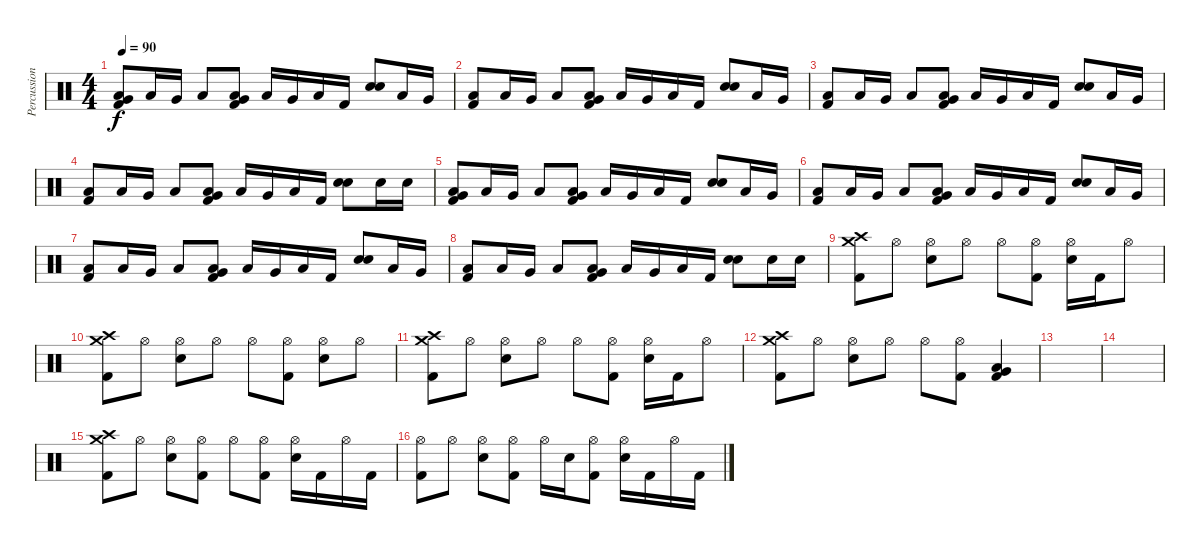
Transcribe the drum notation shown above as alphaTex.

\track ("Percussion" "Percussion") {instrument percussion}
\staff {score}
\articulation defaults
\ts (4 4)
\tempo 90
\clef neutral
\ks c
("Very Low Tom (hit)" "Low Floor Tom (hit)" "Kick (hit) 2").8{dy f} "Low Floor Tom (hit)".16 "Very Low Tom (hit)".16 "Low Floor Tom (hit)".8 ("Very Low Tom (hit)" "Low Floor Tom (hit)" "Kick (hit) 2").8 "Low Floor Tom (hit)".16 "Very Low Tom (hit)".16 "Low Floor Tom (hit)".16 "Kick (hit) 2".16 ("Snare (hit) 2" "Snare (hit) 2").8 "Low Floor Tom (hit)".16 "Very Low Tom (hit)".16 |
("Low Floor Tom (hit)" "Kick (hit) 2").8 "Low Floor Tom (hit)".16 "Very Low Tom (hit)".16 "Low Floor Tom (hit)".8 ("Very Low Tom (hit)" "Low Floor Tom (hit)" "Kick (hit) 2").8 "Low Floor Tom (hit)".16 "Very Low Tom (hit)".16 "Low Floor Tom (hit)".16 "Kick (hit) 2".16 ("Snare (hit) 2" "Snare (hit) 2").8 "Low Floor Tom (hit)".16 "Very Low Tom (hit)".16 |
("Low Floor Tom (hit)" "Kick (hit) 2").8 "Low Floor Tom (hit)".16 "Very Low Tom (hit)".16 "Low Floor Tom (hit)".8 ("Very Low Tom (hit)" "Low Floor Tom (hit)" "Kick (hit) 2").8 "Low Floor Tom (hit)".16 "Very Low Tom (hit)".16 "Low Floor Tom (hit)".16 "Kick (hit) 2".16 ("Snare (hit) 2" "Snare (hit) 2").8 "Low Floor Tom (hit)".16 "Very Low Tom (hit)".16 |
("Low Floor Tom (hit)" "Kick (hit) 2").8 "Low Floor Tom (hit)".16 "Very Low Tom (hit)".16 "Low Floor Tom (hit)".8 ("Very Low Tom (hit)" "Low Floor Tom (hit)" "Kick (hit) 2").8 "Low Floor Tom (hit)".16 "Very Low Tom (hit)".16 "Low Floor Tom (hit)".16 "Kick (hit) 2".16 ("Snare (hit) 2" "Snare (hit) 2").8 "Snare (hit) 2".16 "Snare (hit) 2".16 |
("Very Low Tom (hit)" "Low Floor Tom (hit)" "Kick (hit) 2").8 "Low Floor Tom (hit)".16 "Very Low Tom (hit)".16 "Low Floor Tom (hit)".8 ("Very Low Tom (hit)" "Low Floor Tom (hit)" "Kick (hit) 2").8 "Low Floor Tom (hit)".16 "Very Low Tom (hit)".16 "Low Floor Tom (hit)".16 "Kick (hit) 2".16 ("Snare (hit) 2" "Snare (hit) 2").8 "Low Floor Tom (hit)".16 "Very Low Tom (hit)".16 |
("Low Floor Tom (hit)" "Kick (hit) 2").8 "Low Floor Tom (hit)".16 "Very Low Tom (hit)".16 "Low Floor Tom (hit)".8 ("Very Low Tom (hit)" "Low Floor Tom (hit)" "Kick (hit) 2").8 "Low Floor Tom (hit)".16 "Very Low Tom (hit)".16 "Low Floor Tom (hit)".16 "Kick (hit) 2".16 ("Snare (hit) 2" "Snare (hit) 2").8 "Low Floor Tom (hit)".16 "Very Low Tom (hit)".16 |
("Low Floor Tom (hit)" "Kick (hit) 2").8 "Low Floor Tom (hit)".16 "Very Low Tom (hit)".16 "Low Floor Tom (hit)".8 ("Very Low Tom (hit)" "Low Floor Tom (hit)" "Kick (hit) 2").8 "Low Floor Tom (hit)".16 "Very Low Tom (hit)".16 "Low Floor Tom (hit)".16 "Kick (hit) 2".16 ("Snare (hit) 2" "Snare (hit) 2").8 "Low Floor Tom (hit)".16 "Very Low Tom (hit)".16 |
("Low Floor Tom (hit)" "Kick (hit) 2").8 "Low Floor Tom (hit)".16 "Very Low Tom (hit)".16 "Low Floor Tom (hit)".8 ("Very Low Tom (hit)" "Low Floor Tom (hit)" "Kick (hit) 2").8 "Low Floor Tom (hit)".16 "Very Low Tom (hit)".16 "Low Floor Tom (hit)".16 "Kick (hit) 2".16 ("Snare (hit) 2" "Snare (hit) 2").8 "Snare (hit) 2".16 "Snare (hit) 2".16 |
("Crash high (hit)" "Crash medium (hit)" "Kick (hit) 2").8 "Hi-Hat (open)".8 ("Hi-Hat (open)" "Snare (hit) 2").8 "Hi-Hat (open)".8 "Hi-Hat (open)".8 ("Hi-Hat (open)" "Kick (hit) 2").8 ("Hi-Hat (open)" "Snare (hit) 2").16 "Kick (hit) 2".16 "Hi-Hat (open)".8 |
("Crash high (hit)" "Crash medium (hit)" "Kick (hit) 2").8 "Hi-Hat (open)".8 ("Hi-Hat (open)" "Snare (hit) 2").8 "Hi-Hat (open)".8 "Hi-Hat (open)".8 ("Hi-Hat (open)" "Kick (hit) 2").8 ("Hi-Hat (open)" "Snare (hit) 2").8 "Hi-Hat (open)".8 |
("Crash high (hit)" "Crash medium (hit)" "Kick (hit) 2").8 "Hi-Hat (open)".8 ("Hi-Hat (open)" "Snare (hit) 2").8 "Hi-Hat (open)".8 "Hi-Hat (open)".8 ("Hi-Hat (open)" "Kick (hit) 2").8 ("Hi-Hat (open)" "Snare (hit) 2").16 "Kick (hit) 2".16 "Hi-Hat (open)".8 |
("Crash high (hit)" "Crash medium (hit)" "Kick (hit) 2").8 "Hi-Hat (open)".8 ("Hi-Hat (open)" "Snare (hit) 2").8 "Hi-Hat (open)".8 "Hi-Hat (open)".8 ("Hi-Hat (open)" "Kick (hit) 2").8 ("Very Low Tom (hit)" "Low Floor Tom (hit)" "Kick (hit) 2").4 |
|
|
("Crash high (hit)" "Crash medium (hit)" "Kick (hit) 2").8 "Hi-Hat (open)".8 ("Hi-Hat (open)" "Snare (hit) 2").8 ("Hi-Hat (open)" "Kick (hit) 2").8 "Hi-Hat (open)".8 ("Hi-Hat (open)" "Kick (hit) 2").8 ("Hi-Hat (open)" "Snare (hit) 2").16 "Kick (hit) 2".16 "Hi-Hat (open)".16 "Kick (hit) 2".16 |
("Hi-Hat (open)" "Kick (hit) 2").8 "Hi-Hat (open)".8 ("Hi-Hat (open)" "Snare (hit) 2").8 ("Hi-Hat (open)" "Kick (hit) 2").8 "Hi-Hat (open)".16 "Snare (hit) 2".16 ("Hi-Hat (open)" "Kick (hit) 2").8 ("Hi-Hat (open)" "Snare (hit) 2").16 "Kick (hit) 2".16 "Hi-Hat (open)".16 "Kick (hit) 2".16
